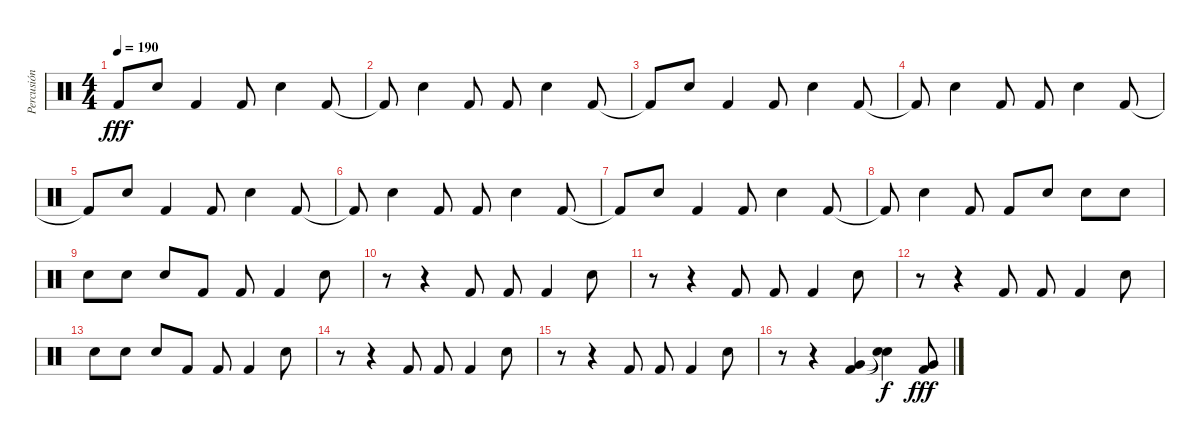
\track ("Percusión" "Percusión") {instrument percussion}
\staff {score}
\articulation defaults
\ts (4 4)
\tempo 190
\clef neutral
\ks c "Kick (hit) 2"{t}.8{dy fff} "Snare (hit) 2".8 "Kick (hit) 2".4 "Kick (hit) 2".8 "Snare (hit) 2".4 "Kick (hit) 2".8
|
"Kick (hit) 2"{t}.8 "Snare (hit) 2".4 "Kick (hit) 2".8 "Kick (hit) 2".8 "Snare (hit) 2".4 "Kick (hit) 2".8 |
"Kick (hit) 2"{t}.8 "Snare (hit) 2".8 "Kick (hit) 2".4 "Kick (hit) 2".8 "Snare (hit) 2".4 "Kick (hit) 2".8 |
"Kick (hit) 2"{t}.8 "Snare (hit) 2".4 "Kick (hit) 2".8 "Kick (hit) 2".8 "Snare (hit) 2".4 "Kick (hit) 2".8 |
"Kick (hit) 2"{t}.8 "Snare (hit) 2".8 "Kick (hit) 2".4 "Kick (hit) 2".8 "Snare (hit) 2".4 "Kick (hit) 2".8 |
"Kick (hit) 2"{t}.8 "Snare (hit) 2".4 "Kick (hit) 2".8 "Kick (hit) 2".8 "Snare (hit) 2".4 "Kick (hit) 2".8 |
"Kick (hit) 2"{t}.8 "Snare (hit) 2".8 "Kick (hit) 2".4 "Kick (hit) 2".8 "Snare (hit) 2".4 "Kick (hit) 2".8 |
"Kick (hit) 2"{t}.8 "Snare (hit) 2".4 "Kick (hit) 2".8 "Kick (hit) 2".8 "Snare (hit) 2".8 "Snare (hit) 2".8 "Snare (hit) 2".8 |
"Snare (hit) 2".8 "Snare (hit) 2".8 "Snare (hit) 2".8 "Kick (hit) 2".8 "Kick (hit) 2".8 "Kick (hit) 2".4 "Snare (hit) 2".8 |
r.8 r.4 "Kick (hit) 2".8 "Kick (hit) 2".8 "Kick (hit) 2".4 "Snare (hit) 2".8 |
r.8 r.4 "Kick (hit) 2".8 "Kick (hit) 2".8 "Kick (hit) 2".4 "Snare (hit) 2".8 |
r.8 r.4 "Kick (hit) 2".8 "Kick (hit) 2".8 "Kick (hit) 2".4 "Snare (hit) 2".8 |
"Snare (hit) 2".8 "Snare (hit) 2".8 "Snare (hit) 2".8 "Kick (hit) 2".8 "Kick (hit) 2".8 "Kick (hit) 2".4 "Snare (hit) 2".8 |
r.8 r.4 "Kick (hit) 2".8 "Kick (hit) 2".8 "Kick (hit) 2".4 "Snare (hit) 2".8 |
r.8 r.4 "Kick (hit) 2".8 "Kick (hit) 2".8 "Kick (hit) 2".4 "Snare (hit) 2".8 |
r.8 r.4 ("Very Low Tom (hit)" "Kick (hit) 2").4 ("Snare (hit)"{t} "Snare (hit)"{t}).4{dy f} ("Very Low Tom (hit)" "Kick (hit) 2").8{dy fff}
